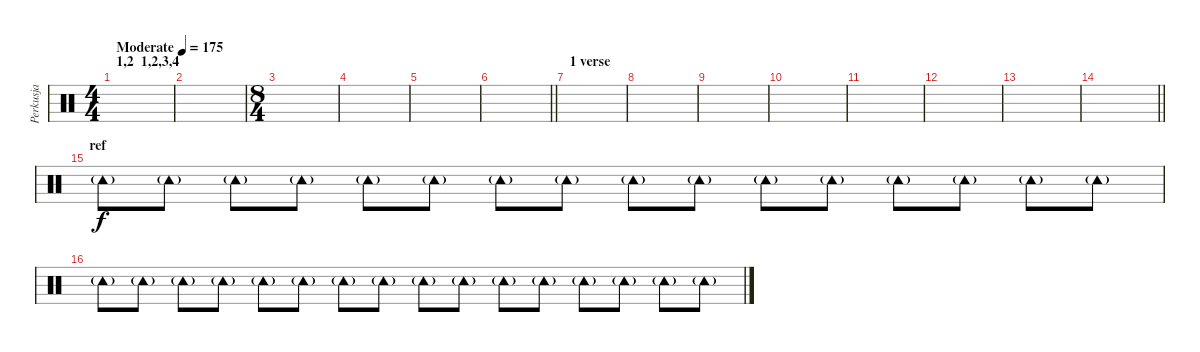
\track ("Perkusja" "Perkusja") {instrument percussion}
\staff {score}
\articulation defaults
\ts (4 4)
\section ("" "1,2  1,2,3,4")
\tempo (175 "Moderate")
\clef neutral
\ks c
|
|
\ts (8 4)
|
|
|
\barLineRight lightlight
|
\section ("" "1 verse")
|
|
|
|
|
|
|
\barLineRight lightlight
|
\section ("" "ref")
"Tambourine (hit)"{g}.8 "Tambourine (hit)"{g}.8 "Tambourine (hit)"{g}.8 "Tambourine (hit)"{g}.8 "Tambourine (hit)"{g}.8 "Tambourine (hit)"{g}.8 "Tambourine (hit)"{g}.8 "Tambourine (hit)"{g}.8 "Tambourine (hit)"{g}.8 "Tambourine (hit)"{g}.8 "Tambourine (hit)"{g}.8 "Tambourine (hit)"{g}.8 "Tambourine (hit)"{g}.8 "Tambourine (hit)"{g}.8 "Tambourine (hit)"{g}.8 "Tambourine (hit)"{g}.8 |
"Tambourine (hit)"{g}.8 "Tambourine (hit)"{g}.8 "Tambourine (hit)"{g}.8 "Tambourine (hit)"{g}.8 "Tambourine (hit)"{g}.8 "Tambourine (hit)"{g}.8 "Tambourine (hit)"{g}.8 "Tambourine (hit)"{g}.8 "Tambourine (hit)"{g}.8 "Tambourine (hit)"{g}.8 "Tambourine (hit)"{g}.8 "Tambourine (hit)"{g}.8 "Tambourine (hit)"{g}.8 "Tambourine (hit)"{g}.8 "Tambourine (hit)"{g}.8 "Tambourine (hit)"{g}.8
